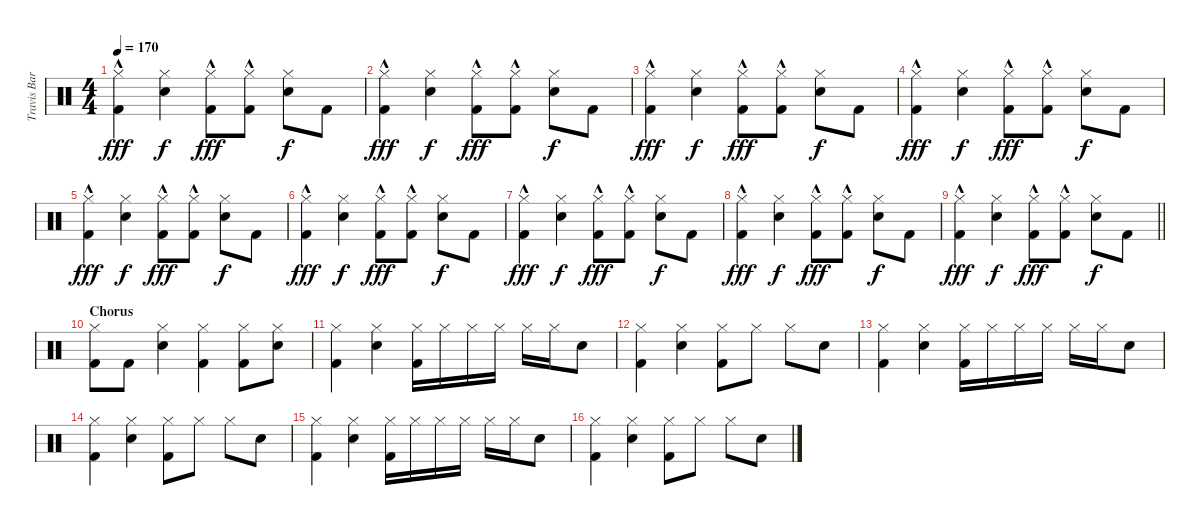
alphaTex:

\track ("Travis Barker" "Travis Bar") {instrument percussion}
\staff {score}
\articulation defaults
\ts (4 4)
\tempo 170
\clef neutral
\ks c
("Hi-Hat (closed)" "Kick (hit) 2"{hac}).4{dy fff} ("Hi-Hat (closed)" "Snare (hit) 2").4{dy f} ("Hi-Hat (closed)" "Kick (hit) 2"{hac}).8{dy fff} ("Hi-Hat (closed)" "Kick (hit) 2"{hac}).8 ("Hi-Hat (closed)" "Snare (hit) 2").8{dy f} "Kick (hit) 2".8 |
("Hi-Hat (closed)" "Kick (hit) 2"{hac}).4{dy fff} ("Hi-Hat (closed)" "Snare (hit) 2").4{dy f} ("Hi-Hat (closed)" "Kick (hit) 2"{hac}).8{dy fff} ("Hi-Hat (closed)" "Kick (hit) 2"{hac}).8 ("Hi-Hat (closed)" "Snare (hit) 2").8{dy f} "Kick (hit) 2".8 |
("Hi-Hat (closed)" "Kick (hit) 2"{hac}).4{dy fff} ("Hi-Hat (closed)" "Snare (hit) 2").4{dy f} ("Hi-Hat (closed)" "Kick (hit) 2"{hac}).8{dy fff} ("Hi-Hat (closed)" "Kick (hit) 2"{hac}).8 ("Hi-Hat (closed)" "Snare (hit) 2").8{dy f} "Kick (hit) 2".8 |
("Hi-Hat (closed)" "Kick (hit) 2"{hac}).4{dy fff} ("Hi-Hat (closed)" "Snare (hit) 2").4{dy f} ("Hi-Hat (closed)" "Kick (hit) 2"{hac}).8{dy fff} ("Hi-Hat (closed)" "Kick (hit) 2"{hac}).8 ("Hi-Hat (closed)" "Snare (hit) 2").8{dy f} "Kick (hit) 2".8 |
("Hi-Hat (closed)" "Kick (hit) 2"{hac}).4{dy fff} ("Hi-Hat (closed)" "Snare (hit) 2").4{dy f} ("Hi-Hat (closed)" "Kick (hit) 2"{hac}).8{dy fff} ("Hi-Hat (closed)" "Kick (hit) 2"{hac}).8 ("Hi-Hat (closed)" "Snare (hit) 2").8{dy f} "Kick (hit) 2".8 |
("Hi-Hat (closed)" "Kick (hit) 2"{hac}).4{dy fff} ("Hi-Hat (closed)" "Snare (hit) 2").4{dy f} ("Hi-Hat (closed)" "Kick (hit) 2"{hac}).8{dy fff} ("Hi-Hat (closed)" "Kick (hit) 2"{hac}).8 ("Hi-Hat (closed)" "Snare (hit) 2").8{dy f} "Kick (hit) 2".8 |
("Hi-Hat (closed)" "Kick (hit) 2"{hac}).4{dy fff} ("Hi-Hat (closed)" "Snare (hit) 2").4{dy f} ("Hi-Hat (closed)" "Kick (hit) 2"{hac}).8{dy fff} ("Hi-Hat (closed)" "Kick (hit) 2"{hac}).8 ("Hi-Hat (closed)" "Snare (hit) 2").8{dy f} "Kick (hit) 2".8 |
("Hi-Hat (closed)" "Kick (hit) 2"{hac}).4{dy fff} ("Hi-Hat (closed)" "Snare (hit) 2").4{dy f} ("Hi-Hat (closed)" "Kick (hit) 2"{hac}).8{dy fff} ("Hi-Hat (closed)" "Kick (hit) 2"{hac}).8 ("Hi-Hat (closed)" "Snare (hit) 2").8{dy f} "Kick (hit) 2".8 |
\barLineRight lightlight
("Hi-Hat (closed)" "Kick (hit) 2"{hac}).4{dy fff} ("Hi-Hat (closed)" "Snare (hit) 2").4{dy f} ("Hi-Hat (closed)" "Kick (hit) 2"{hac}).8{dy fff} ("Hi-Hat (closed)" "Kick (hit) 2"{hac}).8 ("Hi-Hat (closed)" "Snare (hit) 2").8{dy f} "Kick (hit) 2".8 |
\section ("" "Chorus")
("Kick (hit) 2" "Hi-Hat (closed)").8 "Kick (hit) 2".8 ("Snare (hit) 2" "Hi-Hat (closed)").4 ("Kick (hit) 2" "Hi-Hat (closed)").4 ("Kick (hit) 2" "Hi-Hat (closed)").8 ("Snare (hit) 2" "Hi-Hat (closed)").8 |
("Kick (hit) 2" "Hi-Hat (closed)").4 ("Snare (hit) 2" "Hi-Hat (closed)").4 ("Kick (hit) 2" "Hi-Hat (closed)").16 "Hi-Hat (closed)".16 "Hi-Hat (closed)".16 "Hi-Hat (closed)".16 "Hi-Hat (closed)".16 "Hi-Hat (closed)".16 "Snare (hit) 2".8 |
("Kick (hit) 2" "Hi-Hat (closed)").4 ("Snare (hit) 2" "Hi-Hat (closed)").4 ("Hi-Hat (closed)" "Kick (hit) 2").8 "Hi-Hat (closed)".8 "Hi-Hat (closed)".8 "Snare (hit) 2".8 |
("Kick (hit) 2" "Hi-Hat (closed)").4 ("Snare (hit) 2" "Hi-Hat (closed)").4 ("Kick (hit) 2" "Hi-Hat (closed)").16 "Hi-Hat (closed)".16 "Hi-Hat (closed)".16 "Hi-Hat (closed)".16 "Hi-Hat (closed)".16 "Hi-Hat (closed)".16 "Snare (hit) 2".8 |
("Kick (hit) 2" "Hi-Hat (closed)").4 ("Snare (hit) 2" "Hi-Hat (closed)").4 ("Hi-Hat (closed)" "Kick (hit) 2").8 "Hi-Hat (closed)".8 "Hi-Hat (closed)".8 "Snare (hit) 2".8 |
("Kick (hit) 2" "Hi-Hat (closed)").4 ("Snare (hit) 2" "Hi-Hat (closed)").4 ("Kick (hit) 2" "Hi-Hat (closed)").16 "Hi-Hat (closed)".16 "Hi-Hat (closed)".16 "Hi-Hat (closed)".16 "Hi-Hat (closed)".16 "Hi-Hat (closed)".16 "Snare (hit) 2".8 |
("Kick (hit) 2" "Hi-Hat (closed)").4 ("Snare (hit) 2" "Hi-Hat (closed)").4 ("Hi-Hat (closed)" "Kick (hit) 2").8 "Hi-Hat (closed)".8 "Hi-Hat (closed)".8 "Snare (hit) 2".8
